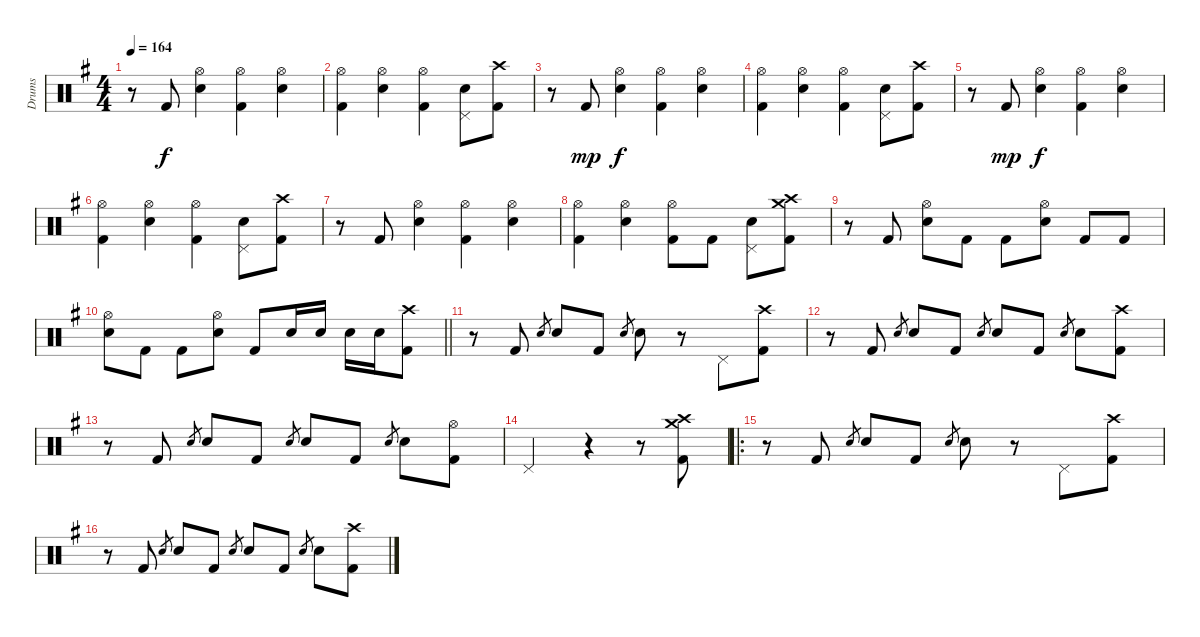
\track ("Drums" "Drums") {instrument percussion}
\staff
\articulation defaults
\ts (4 4)
\tempo 164
\clef neutral
\ks g
r.8{dy f} "Kick (hit) 2".8 ("Hi-Hat (open)" "Snare (hit) 2").4 ("Hi-Hat (open)" "Kick (hit) 2").4 ("Hi-Hat (open)" "Snare (hit) 2").4 |
("Hi-Hat (open)" "Kick (hit) 2").4 ("Hi-Hat (open)" "Snare (hit) 2").4 ("Hi-Hat (open)" "Kick (hit) 2").4 ("Pedal Hi-Hat (hit)" "Snare (hit) 2").8 ("Crash high (hit)" "Kick (hit) 2").8 |
r.8 "Kick (hit) 2".8{dy mp} ("Hi-Hat (open)" "Snare (hit) 2").4{dy f} ("Hi-Hat (open)" "Kick (hit) 2").4 ("Hi-Hat (open)" "Snare (hit) 2").4 |
("Hi-Hat (open)" "Kick (hit) 2").4 ("Hi-Hat (open)" "Snare (hit) 2").4 ("Hi-Hat (open)" "Kick (hit) 2").4 ("Pedal Hi-Hat (hit)" "Snare (hit) 2").8 ("Crash high (hit)" "Kick (hit) 2").8 |
r.8 "Kick (hit) 2".8{dy mp} ("Hi-Hat (open)" "Snare (hit) 2").4{dy f} ("Hi-Hat (open)" "Kick (hit) 2").4 ("Hi-Hat (open)" "Snare (hit) 2").4 |
("Hi-Hat (open)" "Kick (hit) 2").4 ("Hi-Hat (open)" "Snare (hit) 2").4 ("Hi-Hat (open)" "Kick (hit) 2").4 ("Pedal Hi-Hat (hit)" "Snare (hit) 2").8 ("Crash high (hit)" "Kick (hit) 2").8 |
r.8 "Kick (hit) 2".8 ("Hi-Hat (open)" "Snare (hit) 2").4 ("Hi-Hat (open)" "Kick (hit) 2").4 ("Hi-Hat (open)" "Snare (hit) 2").4 |
("Hi-Hat (open)" "Kick (hit) 2").4 ("Hi-Hat (open)" "Snare (hit) 2").4 ("Hi-Hat (open)" "Kick (hit) 2").8 "Kick (hit) 2".8 ("Pedal Hi-Hat (hit)" "Snare (hit) 2").8 ("Crash high (hit)" "Crash medium (hit)" "Kick (hit) 2").8 |
r.8 "Kick (hit) 2".8 ("Hi-Hat (open)" "Snare (hit) 2").8 "Kick (hit) 2".8 "Kick (hit) 2".8 ("Hi-Hat (open)" "Snare (hit) 2").8 "Kick (hit) 2".8 "Kick (hit) 2".8 |
\barLineRight lightlight
("Hi-Hat (open)" "Snare (hit) 2").8 "Kick (hit) 2".8 "Kick (hit) 2".8 ("Hi-Hat (open)" "Snare (hit) 2").8 "Kick (hit) 2".8 "Snare (hit) 2".16 "Snare (hit) 2".16 "Snare (hit) 2".16 "Snare (hit) 2".16 ("Crash high (hit)" "Kick (hit) 2").8 |
r.8 "Kick (hit) 2".8 "Snare (hit) 2".8{gr} "Snare (hit) 2".8 "Kick (hit) 2".8 "Snare (hit) 2".8{gr} "Snare (hit) 2".8 r.8 "Pedal Hi-Hat (hit)".8 ("Crash high (hit)" "Kick (hit) 2").8 |
r.8 "Kick (hit) 2".8 "Snare (hit) 2".8{gr} "Snare (hit) 2".8 "Kick (hit) 2".8 "Snare (hit) 2".8{gr} "Snare (hit) 2".8 "Kick (hit) 2".8 "Snare (hit) 2".8{gr} "Snare (hit) 2".8 ("Crash high (hit)" "Kick (hit) 2").8 |
r.8 "Kick (hit) 2".8 "Snare (hit) 2".8{gr} "Snare (hit) 2".8 "Kick (hit) 2".8 "Snare (hit) 2".8{gr} "Snare (hit) 2".8 "Kick (hit) 2".8 "Snare (hit) 2".8{gr} "Snare (hit) 2".8 ("Hi-Hat (open)" "Kick (hit) 2").8 |
"Pedal Hi-Hat (hit)".2 r.4 r.8 ("Crash high (hit)" "Crash medium (hit)" "Kick (hit) 2").8 |
\ro
r.8 "Kick (hit) 2".8 "Snare (hit) 2".8{gr} "Snare (hit) 2".8 "Kick (hit) 2".8 "Snare (hit) 2".8{gr} "Snare (hit) 2".8 r.8 "Pedal Hi-Hat (hit)".8 ("Crash high (hit)" "Kick (hit) 2").8 |
r.8 "Kick (hit) 2".8 "Snare (hit) 2".8{gr} "Snare (hit) 2".8 "Kick (hit) 2".8 "Snare (hit) 2".8{gr} "Snare (hit) 2".8 "Kick (hit) 2".8 "Snare (hit) 2".8{gr} "Snare (hit) 2".8 ("Crash high (hit)" "Kick (hit) 2").8
